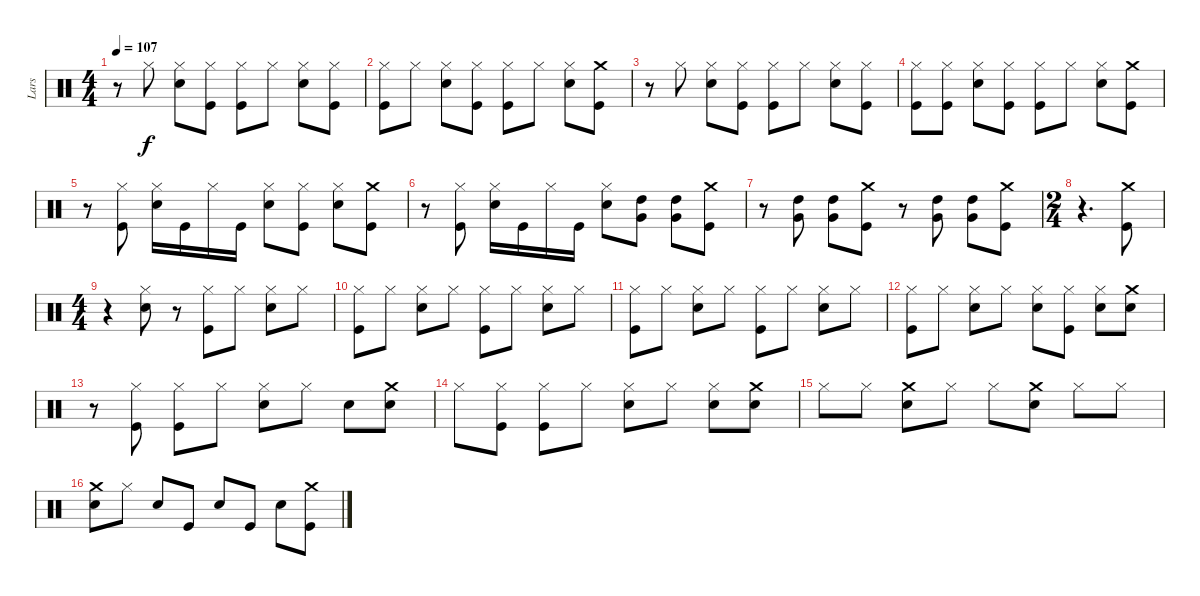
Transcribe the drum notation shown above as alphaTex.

\track ("Lars" "Lars") {instrument percussion}
\staff {score}
\articulation defaults
\ts (4 4)
\tempo 107
\clef neutral
\ks c
r.8{dy f} "Hi-Hat (closed)".8 ("Snare (hit) 2" "Hi-Hat (closed)").8 ("Kick (hit)" "Hi-Hat (closed)").8 ("Hi-Hat (closed)" "Kick (hit)").8 "Hi-Hat (closed)".8 ("Hi-Hat (closed)" "Snare (hit) 2").8 ("Kick (hit)" "Hi-Hat (closed)").8 |
("Hi-Hat (closed)" "Kick (hit)").8 "Hi-Hat (closed)".8 ("Snare (hit) 2" "Hi-Hat (closed)").8 ("Kick (hit)" "Hi-Hat (closed)").8 ("Hi-Hat (closed)" "Kick (hit)").8 "Hi-Hat (closed)".8 ("Hi-Hat (closed)" "Snare (hit) 2").8 ("Crash medium (hit)" "Kick (hit)").8 |
r.8 "Hi-Hat (closed)".8 ("Hi-Hat (closed)" "Snare (hit) 2").8 ("Kick (hit)" "Hi-Hat (closed)").8 ("Hi-Hat (closed)" "Kick (hit)").8 "Hi-Hat (closed)".8 ("Snare (hit) 2" "Hi-Hat (closed)").8 ("Kick (hit)" "Hi-Hat (closed)").8 |
("Kick (hit)" "Hi-Hat (closed)").8 ("Hi-Hat (closed)" "Kick (hit)").8 ("Hi-Hat (closed)" "Snare (hit) 2").8 ("Kick (hit)" "Hi-Hat (closed)").8 ("Hi-Hat (closed)" "Kick (hit)").8 "Hi-Hat (closed)".8 ("Hi-Hat (closed)" "Snare (hit) 2").8 ("Crash medium (hit)" "Kick (hit)").8 |
r.8 ("Kick (hit)" "Hi-Hat (closed)").8 ("Hi-Hat (closed)" "Snare (hit) 2").16 "Kick (hit)".16 "Hi-Hat (closed)".16 "Kick (hit)".16 ("Snare (hit) 2" "Hi-Hat (closed)").8 ("Hi-Hat (closed)" "Kick (hit)").8 ("Hi-Hat (closed)" "Snare (hit) 2").8 ("Crash medium (hit)" "Kick (hit)").8 |
r.8 ("Kick (hit)" "Hi-Hat (closed)").8 ("Hi-Hat (closed)" "Snare (hit) 2").16 "Kick (hit)".16 "Hi-Hat (closed)".16 "Kick (hit)".16 ("Snare (hit) 2" "Hi-Hat (closed)").8 ("High Tom (hit)" "Very Low Tom (hit)").8 ("High Tom (hit)" "Very Low Tom (hit)").8 ("Crash medium (hit)" "Kick (hit)").8 |
r.8 ("High Tom (hit)" "Very Low Tom (hit)").8 ("High Tom (hit)" "Very Low Tom (hit)").8 ("Crash medium (hit)" "Kick (hit)").8 r.8 ("High Tom (hit)" "Very Low Tom (hit)").8 ("High Tom (hit)" "Very Low Tom (hit)").8 ("Crash medium (hit)" "Kick (hit)").8 |
\ts (2 4)
r.4{d} ("Crash medium (hit)" "Kick (hit)").8 |
\ts (4 4)
r.4 ("Hi-Hat (closed)" "Snare (hit) 2").8 r.8 ("Hi-Hat (closed)" "Kick (hit)").8 "Hi-Hat (closed)".8 ("Snare (hit) 2" "Hi-Hat (closed)").8 "Hi-Hat (closed)".8 |
("Hi-Hat (closed)" "Kick (hit)").8 "Hi-Hat (closed)".8 ("Snare (hit) 2" "Hi-Hat (closed)").8 "Hi-Hat (closed)".8 ("Kick (hit)" "Hi-Hat (closed)").8 "Hi-Hat (closed)".8 ("Snare (hit) 2" "Hi-Hat (closed)").8 "Hi-Hat (closed)".8 |
("Hi-Hat (closed)" "Kick (hit)").8 "Hi-Hat (closed)".8 ("Snare (hit) 2" "Hi-Hat (closed)").8 "Hi-Hat (closed)".8 ("Kick (hit)" "Hi-Hat (closed)").8 "Hi-Hat (closed)".8 ("Snare (hit) 2" "Hi-Hat (closed)").8 "Hi-Hat (closed)".8 |
("Hi-Hat (closed)" "Kick (hit)").8 "Hi-Hat (closed)".8 ("Snare (hit) 2" "Hi-Hat (closed)").8 "Hi-Hat (closed)".8 ("Snare (hit) 2" "Hi-Hat (closed)").8 ("Kick (hit)" "Hi-Hat (closed)").8 ("Hi-Hat (closed)" "Snare (hit) 2").8 ("Crash medium (hit)" "Snare (hit) 2").8 |
r.8 ("Hi-Hat (closed)" "Kick (hit)").8 ("Hi-Hat (closed)" "Kick (hit)").8 "Hi-Hat (closed)".8 ("Snare (hit) 2" "Hi-Hat (closed)").8 "Hi-Hat (closed)".8 "Snare (hit) 2".8 ("Crash medium (hit)" "Snare (hit) 2").8 |
"Hi-Hat (closed)".8 ("Kick (hit)" "Hi-Hat (closed)").8 ("Hi-Hat (closed)" "Kick (hit)").8 "Hi-Hat (closed)".8 ("Snare (hit) 2" "Hi-Hat (closed)").8 "Hi-Hat (closed)".8 ("Hi-Hat (closed)" "Snare (hit) 2").8 ("Crash medium (hit)" "Snare (hit) 2").8 |
"Hi-Hat (closed)".8 "Hi-Hat (closed)".8 ("Crash medium (hit)" "Snare (hit) 2").8 "Hi-Hat (closed)".8 "Hi-Hat (closed)".8 ("Crash medium (hit)" "Snare (hit) 2").8 "Hi-Hat (closed)".8 "Hi-Hat (closed)".8 |
("Crash medium (hit)" "Snare (hit) 2").8 "Hi-Hat (closed)".8 "Snare (hit) 2".8 "Kick (hit)".8 "Snare (hit) 2".8 "Kick (hit)".8 "Snare (hit) 2".8 ("Crash medium (hit)" "Kick (hit)").8
